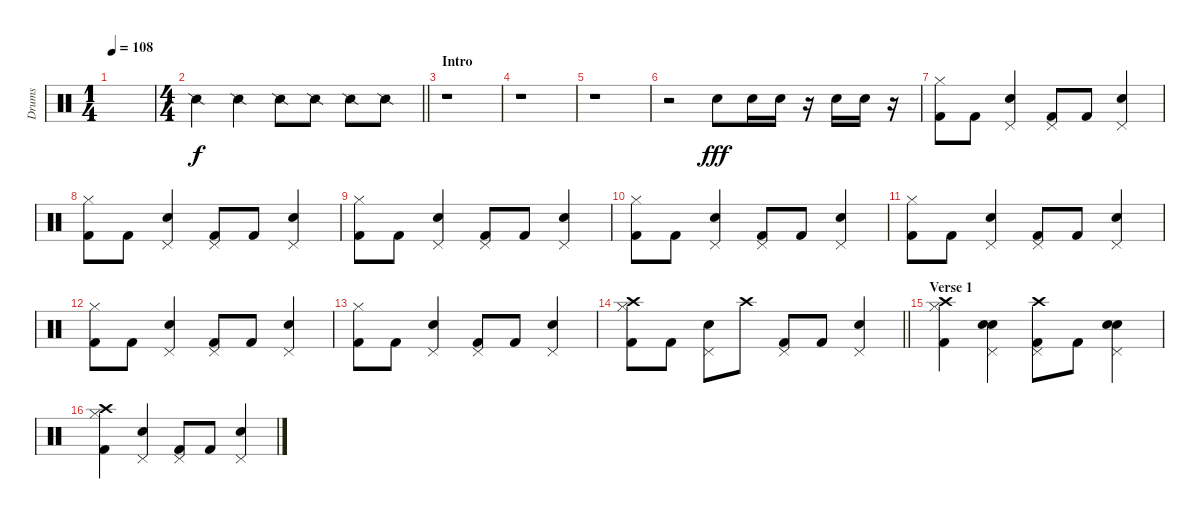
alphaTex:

\track ("Drums" "Drums") {instrument percussion}
\staff {score}
\articulation defaults
\ts (1 4)
\tempo 108
\clef neutral
\ks c
|
\ts (4 4)
\barLineRight lightlight "Snare (side stick) 2".4 "Snare (side stick) 2".4 "Snare (side stick) 2".8 "Snare (side stick) 2".8 "Snare (side stick) 2".8 "Snare (side stick) 2".8
|
\section ("" "Intro")
r.1 |
r.1 |
r.1 |
r.2 "Electric Snare (hit)".8{dy fff} "Electric Snare (hit)".16 "Electric Snare (hit)".16 r.16 "Electric Snare (hit)".16 "Electric Snare (hit)".16 r.16 |
("Hi-Hat (closed)" "Kick (hit) 2").8 "Kick (hit) 2".8 ("Electric Snare (hit)" "Pedal Hi-Hat (hit)").4 ("Pedal Hi-Hat (hit)" "Kick (hit) 2").8 "Kick (hit) 2".8 ("Electric Snare (hit)" "Pedal Hi-Hat (hit)").4 |
("Hi-Hat (closed)" "Kick (hit) 2").8 "Kick (hit) 2".8 ("Electric Snare (hit)" "Pedal Hi-Hat (hit)").4 ("Pedal Hi-Hat (hit)" "Kick (hit) 2").8 "Kick (hit) 2".8 ("Electric Snare (hit)" "Pedal Hi-Hat (hit)").4 |
("Hi-Hat (closed)" "Kick (hit) 2").8 "Kick (hit) 2".8 ("Electric Snare (hit)" "Pedal Hi-Hat (hit)").4 ("Pedal Hi-Hat (hit)" "Kick (hit) 2").8 "Kick (hit) 2".8 ("Electric Snare (hit)" "Pedal Hi-Hat (hit)").4 |
("Hi-Hat (closed)" "Kick (hit) 2").8 "Kick (hit) 2".8 ("Electric Snare (hit)" "Pedal Hi-Hat (hit)").4 ("Pedal Hi-Hat (hit)" "Kick (hit) 2").8 "Kick (hit) 2".8 ("Electric Snare (hit)" "Pedal Hi-Hat (hit)").4 |
("Hi-Hat (closed)" "Kick (hit) 2").8 "Kick (hit) 2".8 ("Electric Snare (hit)" "Pedal Hi-Hat (hit)").4 ("Pedal Hi-Hat (hit)" "Kick (hit) 2").8 "Kick (hit) 2".8 ("Electric Snare (hit)" "Pedal Hi-Hat (hit)").4 |
("Hi-Hat (closed)" "Kick (hit) 2").8 "Kick (hit) 2".8 ("Electric Snare (hit)" "Pedal Hi-Hat (hit)").4 ("Pedal Hi-Hat (hit)" "Kick (hit) 2").8 "Kick (hit) 2".8 ("Electric Snare (hit)" "Pedal Hi-Hat (hit)").4 |
("Hi-Hat (closed)" "Kick (hit) 2").8 "Kick (hit) 2".8 ("Electric Snare (hit)" "Pedal Hi-Hat (hit)").4 ("Pedal Hi-Hat (hit)" "Kick (hit) 2").8 "Kick (hit) 2".8 ("Electric Snare (hit)" "Pedal Hi-Hat (hit)").4 |
\barLineRight lightlight
("Hi-Hat (closed)" "Kick (hit) 2" "Crash high (hit)").8 "Kick (hit) 2".8 ("Electric Snare (hit)" "Pedal Hi-Hat (hit)").8 "Crash high (hit)".8 ("Pedal Hi-Hat (hit)" "Kick (hit) 2").8 "Kick (hit) 2".8 ("Electric Snare (hit)" "Pedal Hi-Hat (hit)").4 |
\section ("" "Verse 1")
("Hi-Hat (closed)" "Kick (hit) 2" "Crash high (hit)").4 ("Electric Snare (hit)" "Pedal Hi-Hat (hit)" "Snare (hit) 2").4 ("Pedal Hi-Hat (hit)" "Kick (hit) 2" "Crash high (hit)").8 "Kick (hit) 2".8 ("Electric Snare (hit)" "Pedal Hi-Hat (hit)" "Snare (hit) 2").4 |
("Hi-Hat (closed)" "Kick (hit) 2" "Crash high (hit)").4 ("Electric Snare (hit)" "Pedal Hi-Hat (hit)").4 ("Pedal Hi-Hat (hit)" "Kick (hit) 2").8 "Kick (hit) 2".8 ("Electric Snare (hit)" "Pedal Hi-Hat (hit)").4
